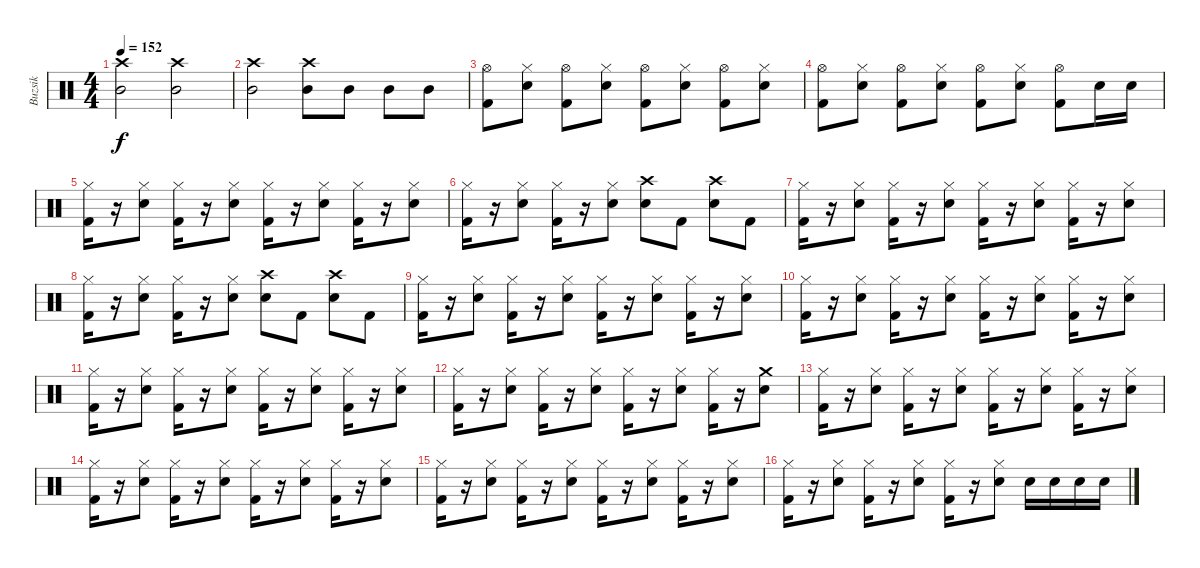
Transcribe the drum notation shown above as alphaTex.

\track ("Buzsik" "Buzsik") {instrument percussion}
\staff {score}
\articulation defaults
\ts (4 4)
\tempo 152
\clef neutral
\ks c
("Crash high (hit)" "Mid Tom (hit)").2{dy f} ("Crash high (hit)" "Mid Tom (hit)").2 |
("Crash high (hit)" "Mid Tom (hit)").2 ("Crash high (hit)" "Mid Tom (hit)").8 "Mid Tom (hit)".8 "Mid Tom (hit)".8 "Mid Tom (hit)".8 |
("Hi-Hat (open)" "Kick (hit) 2").8 ("Hi-Hat (closed)" "Electric Snare (hit)").8 ("Hi-Hat (open)" "Kick (hit) 2").8 ("Hi-Hat (closed)" "Electric Snare (hit)").8 ("Hi-Hat (open)" "Kick (hit) 2").8 ("Hi-Hat (closed)" "Electric Snare (hit)").8 ("Hi-Hat (open)" "Kick (hit) 2").8 ("Hi-Hat (closed)" "Electric Snare (hit)").8 |
("Hi-Hat (open)" "Kick (hit) 2").8 ("Hi-Hat (closed)" "Electric Snare (hit)").8 ("Hi-Hat (open)" "Kick (hit) 2").8 ("Hi-Hat (closed)" "Electric Snare (hit)").8 ("Hi-Hat (open)" "Kick (hit) 2").8 ("Hi-Hat (closed)" "Electric Snare (hit)").8 ("Hi-Hat (open)" "Kick (hit) 2").8 "Electric Snare (hit)".16 "Electric Snare (hit)".16 |
("Hi-Hat (closed)" "Kick (hit) 2").16 r.16 ("Hi-Hat (closed)" "Electric Snare (hit)").8 ("Hi-Hat (closed)" "Kick (hit) 2").16 r.16 ("Hi-Hat (closed)" "Electric Snare (hit)").8 ("Hi-Hat (closed)" "Kick (hit) 2").16 r.16 ("Hi-Hat (closed)" "Electric Snare (hit)").8 ("Hi-Hat (closed)" "Kick (hit) 2").16 r.16 ("Hi-Hat (closed)" "Electric Snare (hit)").8 |
("Hi-Hat (closed)" "Kick (hit) 2").16 r.16 ("Hi-Hat (closed)" "Electric Snare (hit)").8 ("Hi-Hat (closed)" "Kick (hit) 2").16 r.16 ("Hi-Hat (closed)" "Electric Snare (hit)").8 ("Crash high (hit)" "Snare (hit) 2").8 "Kick (hit) 2".8 ("Crash high (hit)" "Snare (hit) 2").8 "Kick (hit) 2".8 |
("Hi-Hat (closed)" "Kick (hit) 2").16 r.16 ("Hi-Hat (closed)" "Electric Snare (hit)").8 ("Hi-Hat (closed)" "Kick (hit) 2").16 r.16 ("Hi-Hat (closed)" "Electric Snare (hit)").8 ("Hi-Hat (closed)" "Kick (hit) 2").16 r.16 ("Hi-Hat (closed)" "Electric Snare (hit)").8 ("Hi-Hat (closed)" "Kick (hit) 2").16 r.16 ("Hi-Hat (closed)" "Electric Snare (hit)").8 |
("Hi-Hat (closed)" "Kick (hit) 2").16 r.16 ("Hi-Hat (closed)" "Electric Snare (hit)").8 ("Hi-Hat (closed)" "Kick (hit) 2").16 r.16 ("Hi-Hat (closed)" "Electric Snare (hit)").8 ("Crash high (hit)" "Snare (hit) 2").8 "Kick (hit) 2".8 ("Crash high (hit)" "Snare (hit) 2").8 "Kick (hit) 2".8 |
("Hi-Hat (closed)" "Kick (hit) 2").16 r.16 ("Hi-Hat (closed)" "Electric Snare (hit)").8 ("Hi-Hat (closed)" "Kick (hit) 2").16 r.16 ("Hi-Hat (closed)" "Electric Snare (hit)").8 ("Hi-Hat (closed)" "Kick (hit) 2").16 r.16 ("Hi-Hat (closed)" "Electric Snare (hit)").8 ("Hi-Hat (closed)" "Kick (hit) 2").16 r.16 ("Hi-Hat (closed)" "Electric Snare (hit)").8 |
("Hi-Hat (closed)" "Kick (hit) 2").16 r.16 ("Hi-Hat (closed)" "Electric Snare (hit)").8 ("Hi-Hat (closed)" "Kick (hit) 2").16 r.16 ("Hi-Hat (closed)" "Electric Snare (hit)").8 ("Hi-Hat (closed)" "Kick (hit) 2").16 r.16 ("Hi-Hat (closed)" "Electric Snare (hit)").8 ("Hi-Hat (closed)" "Kick (hit) 2").16 r.16 ("Hi-Hat (closed)" "Electric Snare (hit)").8 |
("Hi-Hat (closed)" "Kick (hit) 2").16 r.16 ("Hi-Hat (closed)" "Electric Snare (hit)").8 ("Hi-Hat (closed)" "Kick (hit) 2").16 r.16 ("Hi-Hat (closed)" "Electric Snare (hit)").8 ("Hi-Hat (closed)" "Kick (hit) 2").16 r.16 ("Hi-Hat (closed)" "Electric Snare (hit)").8 ("Hi-Hat (closed)" "Kick (hit) 2").16 r.16 ("Hi-Hat (closed)" "Electric Snare (hit)").8 |
("Hi-Hat (closed)" "Kick (hit) 2").16 r.16 ("Hi-Hat (closed)" "Electric Snare (hit)").8 ("Hi-Hat (closed)" "Kick (hit) 2").16 r.16 ("Hi-Hat (closed)" "Electric Snare (hit)").8 ("Hi-Hat (closed)" "Kick (hit) 2").16 r.16 ("Hi-Hat (closed)" "Electric Snare (hit)").8 ("Hi-Hat (closed)" "Kick (hit) 2").16 r.16 ("Crash medium (hit)" "Electric Snare (hit)").8 |
("Hi-Hat (closed)" "Kick (hit) 2").16 r.16 ("Hi-Hat (closed)" "Electric Snare (hit)").8 ("Hi-Hat (closed)" "Kick (hit) 2").16 r.16 ("Hi-Hat (closed)" "Electric Snare (hit)").8 ("Hi-Hat (closed)" "Kick (hit) 2").16 r.16 ("Hi-Hat (closed)" "Electric Snare (hit)").8 ("Hi-Hat (closed)" "Kick (hit) 2").16 r.16 ("Hi-Hat (closed)" "Electric Snare (hit)").8 |
("Hi-Hat (closed)" "Kick (hit) 2").16 r.16 ("Hi-Hat (closed)" "Electric Snare (hit)").8 ("Hi-Hat (closed)" "Kick (hit) 2").16 r.16 ("Hi-Hat (closed)" "Electric Snare (hit)").8 ("Hi-Hat (closed)" "Kick (hit) 2").16 r.16 ("Hi-Hat (closed)" "Electric Snare (hit)").8 ("Hi-Hat (closed)" "Kick (hit) 2").16 r.16 ("Hi-Hat (closed)" "Electric Snare (hit)").8 |
("Hi-Hat (closed)" "Kick (hit) 2").16 r.16 ("Hi-Hat (closed)" "Electric Snare (hit)").8 ("Hi-Hat (closed)" "Kick (hit) 2").16 r.16 ("Hi-Hat (closed)" "Electric Snare (hit)").8 ("Hi-Hat (closed)" "Kick (hit) 2").16 r.16 ("Hi-Hat (closed)" "Electric Snare (hit)").8 ("Hi-Hat (closed)" "Kick (hit) 2").16 r.16 ("Hi-Hat (closed)" "Electric Snare (hit)").8 |
("Hi-Hat (closed)" "Kick (hit) 2").16 r.16 ("Hi-Hat (closed)" "Electric Snare (hit)").8 ("Hi-Hat (closed)" "Kick (hit) 2").16 r.16 ("Hi-Hat (closed)" "Electric Snare (hit)").8 ("Hi-Hat (closed)" "Kick (hit) 2").16 r.16 ("Hi-Hat (closed)" "Electric Snare (hit)").8 "Electric Snare (hit)".16 "Electric Snare (hit)".16 "Electric Snare (hit)".16 "Electric Snare (hit)".16
